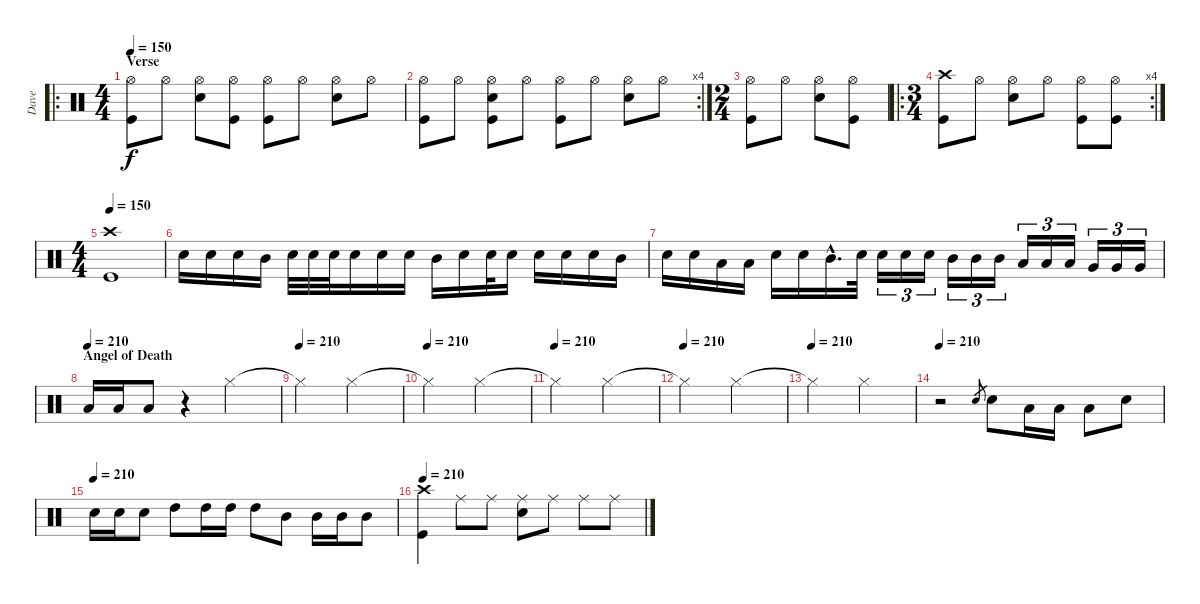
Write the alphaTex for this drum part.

\track ("Dave" "Dave") {instrument percussion}
\staff {score}
\articulation defaults
\ro
\ts (4 4)
\section ("" "Verse")
\tempo 150
\clef neutral
\ks c
("Hi-Hat (open)" "Kick (hit)").8{dy f} "Hi-Hat (open)".8 ("Hi-Hat (open)" "Snare (hit) 2").8 ("Hi-Hat (open)" "Kick (hit)").8 ("Hi-Hat (open)" "Kick (hit)").8 "Hi-Hat (open)".8 ("Hi-Hat (open)" "Snare (hit) 2").8 "Hi-Hat (open)".8 |
\rc 4
("Hi-Hat (open)" "Kick (hit)").8 "Hi-Hat (open)".8 ("Hi-Hat (open)" "Snare (hit) 2" "Kick (hit)").8 "Hi-Hat (open)".8 ("Hi-Hat (open)" "Kick (hit)").8 "Hi-Hat (open)".8 ("Hi-Hat (open)" "Snare (hit) 2").8 "Hi-Hat (open)".8 |
\ts (2 4)
("Hi-Hat (open)" "Kick (hit)").8 "Hi-Hat (open)".8 ("Hi-Hat (open)" "Snare (hit) 2").8 ("Hi-Hat (open)" "Kick (hit)").8 |
\ro
\rc 4
\ts (3 4)
("Crash high (hit)" "Kick (hit)").8 "Hi-Hat (open)".8 ("Hi-Hat (open)" "Snare (hit) 2").8 "Hi-Hat (open)".8 ("Hi-Hat (open)" "Kick (hit)").8 ("Hi-Hat (open)" "Kick (hit)").8 |
\ts (4 4)
\tempo 150
("Crash high (hit)" "Kick (hit)").1 |
"Snare (hit) 2".16 "Snare (hit) 2".16 "Snare (hit) 2".16 "Mid Tom (hit)".16 "Snare (hit) 2".32 "Snare (hit) 2".32 "Snare (hit) 2".32 "Snare (hit) 2".16 "Snare (hit) 2".16 "Snare (hit) 2".16 "Mid Tom (hit)".16 "Snare (hit) 2".16 "Snare (hit) 2".32 "Snare (hit) 2".16 "Snare (hit) 2".16 "Snare (hit) 2".16 "Snare (hit) 2".16 "Mid Tom (hit)".16 |
"Snare (hit) 2".16 "Snare (hit) 2".16 "Low Tom (hit)".16 "Low Tom (hit)".16 "Snare (hit) 2".16 "Snare (hit) 2".16 "Mid Tom (hit)"{hac}.16{d} "Snare (hit) 2".32 "Snare (hit) 2".16{tu (3 2)} "Snare (hit) 2".16{tu (3 2)} "Snare (hit) 2".16{tu (3 2)} "Mid Tom (hit)".16{tu (3 2)} "Mid Tom (hit)".16{tu (3 2)} "Mid Tom (hit)".16{tu (3 2)} "Low Tom (hit)".16{tu (3 2)} "Low Tom (hit)".16{tu (3 2)} "Low Tom (hit)".16{tu (3 2)} "Very Low Tom (hit)".16{tu (3 2)} "Very Low Tom (hit)".16{tu (3 2)} "Very Low Tom (hit)".16{tu (3 2)} |
\section ("" "Angel of Death")
\tempo (210)
"Low Floor Tom (hit)".16 "Low Floor Tom (hit)".16 "Low Floor Tom (hit)".8 r.4 "Hi-Hat (closed)".2 |
\tempo (210)
"Hi-Hat (closed)"{t}.2 "Hi-Hat (closed)".2 |
\tempo (210)
"Hi-Hat (closed)"{t}.2 "Hi-Hat (closed)".2 |
\tempo (210)
"Hi-Hat (closed)"{t}.2 "Hi-Hat (closed)".2 |
\tempo (210)
"Hi-Hat (closed)"{t}.2 "Hi-Hat (closed)".2 |
\tempo (210)
"Hi-Hat (closed)"{t}.2 "Hi-Hat (closed)".2 |
\tempo 210
r.2 "Snare (hit) 2".8{gr} "Snare (hit) 2".8 "Low Tom (hit)".16 "Low Tom (hit)".16 "Low Tom (hit)".8 "Snare (hit) 2".8 |
\tempo (210)
"Snare (hit) 2".16 "Snare (hit) 2".16 "Snare (hit) 2".8 "High Tom (hit)".8 "High Tom (hit)".16 "High Tom (hit)".16 "High Tom (hit)".8 "Mid Tom (hit)".8 "Mid Tom (hit)".16 "Mid Tom (hit)".16 "Mid Tom (hit)".8 |
\tempo 210
("Crash high (hit)" "Kick (hit)").4 "Ride (middle)".8 "Ride (middle)".8 ("Ride (middle)" "Snare (hit) 2").8 "Ride (middle)".8 "Ride (middle)".8 "Ride (middle)".8
